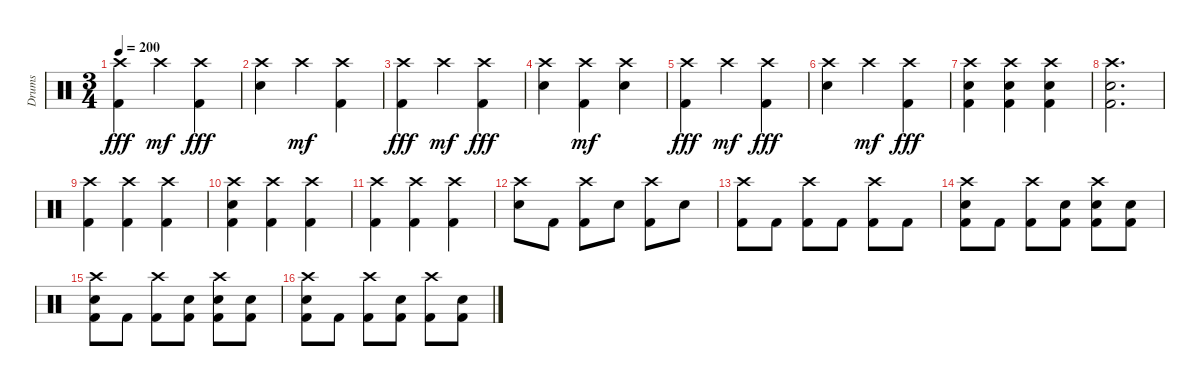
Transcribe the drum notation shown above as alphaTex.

\track ("Drums" "Drums") {instrument percussion}
\staff {score}
\articulation defaults
\ts (3 4)
\tempo 200
\clef neutral
\ks c
("Crash high (hit)" "Kick (hit) 2").4{dy fff} "Crash high (hit)".4{dy mf} ("Crash high (hit)" "Kick (hit) 2").4{dy fff} |
("Crash high (hit)" "Electric Snare (hit)").4 "Crash high (hit)".4{dy mf} ("Crash high (hit)" "Kick (hit) 2").4 |
("Crash high (hit)" "Kick (hit) 2").4{dy fff} "Crash high (hit)".4{dy mf} ("Crash high (hit)" "Kick (hit) 2").4{dy fff} |
("Crash high (hit)" "Electric Snare (hit)").4 ("Crash high (hit)" "Kick (hit) 2").4{dy mf} ("Crash high (hit)" "Electric Snare (hit)").4 |
("Crash high (hit)" "Kick (hit) 2").4{dy fff} "Crash high (hit)".4{dy mf} ("Crash high (hit)" "Kick (hit) 2").4{dy fff} |
("Crash high (hit)" "Electric Snare (hit)").4 "Crash high (hit)".4{dy mf} ("Crash high (hit)" "Kick (hit) 2").4{dy fff} |
("Crash high (hit)" "Electric Snare (hit)" "Kick (hit) 2").4 ("Crash high (hit)" "Electric Snare (hit)" "Kick (hit) 2").4 ("Crash high (hit)" "Electric Snare (hit)" "Kick (hit) 2").4 |
("Crash high (hit)" "Electric Snare (hit)" "Kick (hit) 2").2{d} |
("Crash high (hit)" "Kick (hit) 2").4 ("Crash high (hit)" "Kick (hit) 2").4 ("Crash high (hit)" "Kick (hit) 2").4 |
("Crash high (hit)" "Electric Snare (hit)" "Kick (hit) 2").4 ("Crash high (hit)" "Kick (hit) 2").4 ("Crash high (hit)" "Kick (hit) 2").4 |
("Crash high (hit)" "Kick (hit) 2").4 ("Crash high (hit)" "Kick (hit) 2").4 ("Crash high (hit)" "Kick (hit) 2").4 |
("Crash high (hit)" "Electric Snare (hit)").8 "Kick (hit) 2".8 ("Crash high (hit)" "Kick (hit) 2").8 "Electric Snare (hit)".8 ("Crash high (hit)" "Kick (hit) 2").8 "Electric Snare (hit)".8 |
("Crash high (hit)" "Kick (hit) 2").8 "Kick (hit) 2".8 ("Crash high (hit)" "Kick (hit) 2").8 "Kick (hit) 2".8 ("Crash high (hit)" "Kick (hit) 2").8 "Kick (hit) 2".8 |
("Crash high (hit)" "Electric Snare (hit)" "Kick (hit) 2").8 "Kick (hit) 2".8 ("Crash high (hit)" "Kick (hit) 2").8 ("Electric Snare (hit)" "Kick (hit) 2").8 ("Crash high (hit)" "Electric Snare (hit)" "Kick (hit) 2").8 ("Electric Snare (hit)" "Kick (hit) 2").8 |
("Crash high (hit)" "Electric Snare (hit)" "Kick (hit) 2").8 "Kick (hit) 2".8 ("Crash high (hit)" "Kick (hit) 2").8 ("Electric Snare (hit)" "Kick (hit) 2").8 ("Crash high (hit)" "Electric Snare (hit)" "Kick (hit) 2").8 ("Electric Snare (hit)" "Kick (hit) 2").8 |
("Crash high (hit)" "Electric Snare (hit)" "Kick (hit) 2").8 "Kick (hit) 2".8 ("Crash high (hit)" "Kick (hit) 2").8 ("Electric Snare (hit)" "Kick (hit) 2").8 ("Crash high (hit)" "Kick (hit) 2").8 ("Electric Snare (hit)" "Kick (hit) 2").8
